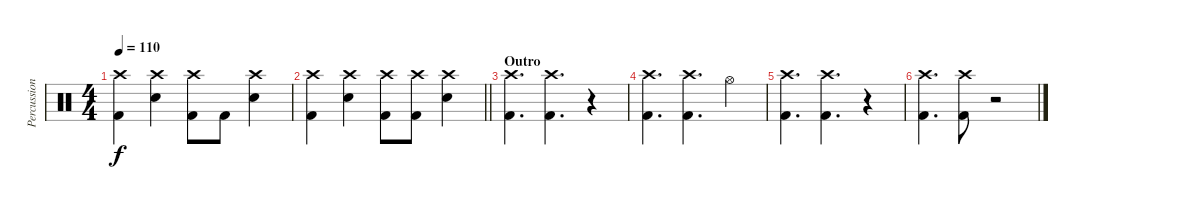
\track ("Percussion" "Percussion") {instrument percussion}
\staff {score}
\articulation defaults
\ts (4 4)
\tempo 110
\clef neutral
\ks c
("Crash high (hit)" "Kick (hit) 2").4{dy f} ("Crash high (hit)" "Electric Snare (hit)").4 ("Crash high (hit)" "Kick (hit) 2").8 "Kick (hit) 2".8 ("Crash high (hit)" "Electric Snare (hit)").4 |
\barLineRight lightlight
("Crash high (hit)" "Kick (hit) 2").4 ("Crash high (hit)" "Electric Snare (hit)").4 ("Crash high (hit)" "Kick (hit) 2").8 ("Crash high (hit)" "Kick (hit) 2").8 ("Crash high (hit)" "Electric Snare (hit)").4 |
\section ("" "Outro")
("Crash high (hit)" "Kick (hit) 2").4{d} ("Crash high (hit)" "Kick (hit) 2").4{d} r.4 |
("Crash high (hit)" "Kick (hit) 2").4{d} ("Crash high (hit)" "Kick (hit) 2").4{d} "Hi-Hat (open)".4 |
("Crash high (hit)" "Kick (hit) 2").4{d} ("Crash high (hit)" "Kick (hit) 2").4{d} r.4 |
("Crash high (hit)" "Kick (hit) 2").4{d} ("Crash high (hit)" "Kick (hit) 2").8 r.2
